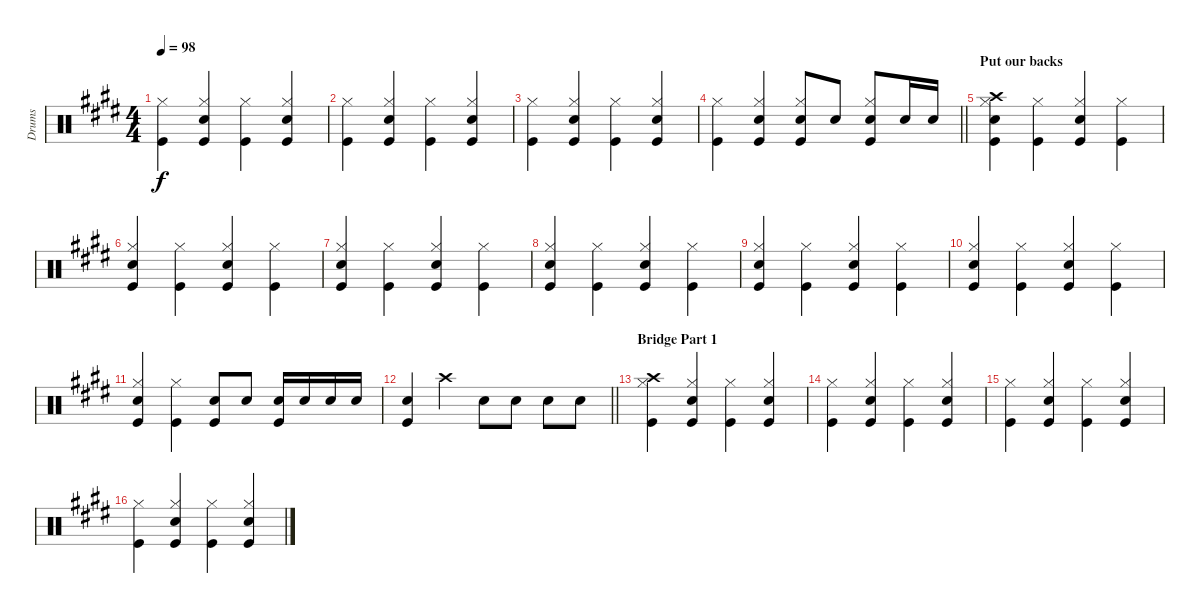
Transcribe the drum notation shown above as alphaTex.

\track ("Drums" "Drums") {instrument percussion}
\staff {score}
\articulation defaults
\ts (4 4)
\tempo 98
\clef neutral
\ks c#minor
("Kick (hit)" "Hi-Hat (closed)").4{dy f} ("Kick (hit)" "Snare (hit) 2" "Hi-Hat (closed)").4 ("Kick (hit)" "Hi-Hat (closed)").4 ("Kick (hit)" "Snare (hit) 2" "Hi-Hat (closed)").4 |
("Kick (hit)" "Hi-Hat (closed)").4 ("Kick (hit)" "Snare (hit) 2" "Hi-Hat (closed)").4 ("Kick (hit)" "Hi-Hat (closed)").4 ("Kick (hit)" "Snare (hit) 2" "Hi-Hat (closed)").4 |
("Kick (hit)" "Hi-Hat (closed)").4 ("Kick (hit)" "Snare (hit) 2" "Hi-Hat (closed)").4 ("Kick (hit)" "Hi-Hat (closed)").4 ("Kick (hit)" "Snare (hit) 2" "Hi-Hat (closed)").4 |
\barLineRight lightlight
("Kick (hit)" "Hi-Hat (closed)").4 ("Kick (hit)" "Snare (hit) 2" "Hi-Hat (closed)").4 ("Kick (hit)" "Snare (hit) 2" "Hi-Hat (closed)").8 "Snare (hit) 2".8 ("Kick (hit)" "Snare (hit) 2" "Hi-Hat (closed)").8 "Snare (hit) 2".16 "Snare (hit) 2".16 |
\section ("" "Put our backs")
("Kick (hit)" "Snare (hit) 2" "Hi-Hat (closed)" "Crash high (hit)").4 ("Kick (hit)" "Hi-Hat (closed)").4 ("Kick (hit)" "Snare (hit) 2" "Hi-Hat (closed)").4 ("Kick (hit)" "Hi-Hat (closed)").4 |
("Kick (hit)" "Snare (hit) 2" "Hi-Hat (closed)").4 ("Kick (hit)" "Hi-Hat (closed)").4 ("Kick (hit)" "Snare (hit) 2" "Hi-Hat (closed)").4 ("Kick (hit)" "Hi-Hat (closed)").4 |
("Kick (hit)" "Snare (hit) 2" "Hi-Hat (closed)").4 ("Kick (hit)" "Hi-Hat (closed)").4 ("Kick (hit)" "Snare (hit) 2" "Hi-Hat (closed)").4 ("Kick (hit)" "Hi-Hat (closed)").4 |
("Kick (hit)" "Snare (hit) 2" "Hi-Hat (closed)").4 ("Kick (hit)" "Hi-Hat (closed)").4 ("Kick (hit)" "Snare (hit) 2" "Hi-Hat (closed)").4 ("Kick (hit)" "Hi-Hat (closed)").4 |
("Kick (hit)" "Snare (hit) 2" "Hi-Hat (closed)").4 ("Kick (hit)" "Hi-Hat (closed)").4 ("Kick (hit)" "Snare (hit) 2" "Hi-Hat (closed)").4 ("Kick (hit)" "Hi-Hat (closed)").4 |
("Kick (hit)" "Snare (hit) 2" "Hi-Hat (closed)").4 ("Kick (hit)" "Hi-Hat (closed)").4 ("Kick (hit)" "Snare (hit) 2" "Hi-Hat (closed)").4 ("Kick (hit)" "Hi-Hat (closed)").4 |
("Kick (hit)" "Snare (hit) 2" "Hi-Hat (closed)").4 ("Kick (hit)" "Hi-Hat (closed)").4 ("Kick (hit)" "Snare (hit) 2").8 "Snare (hit) 2".8 ("Kick (hit)" "Snare (hit) 2").16 "Snare (hit) 2".16 "Snare (hit) 2".16 "Snare (hit) 2".16 |
\barLineRight lightlight
("Kick (hit)" "Snare (hit) 2").4 "Crash high (hit)".4 "Snare (hit) 2".8 "Snare (hit) 2".8 "Snare (hit) 2".8 "Snare (hit) 2".8 |
\section ("" "Bridge Part 1")
("Kick (hit)" "Hi-Hat (closed)" "Crash high (hit)").4 ("Kick (hit)" "Snare (hit) 2" "Hi-Hat (closed)").4 ("Kick (hit)" "Hi-Hat (closed)").4 ("Kick (hit)" "Snare (hit) 2" "Hi-Hat (closed)").4 |
("Kick (hit)" "Hi-Hat (closed)").4 ("Kick (hit)" "Snare (hit) 2" "Hi-Hat (closed)").4 ("Kick (hit)" "Hi-Hat (closed)").4 ("Kick (hit)" "Snare (hit) 2" "Hi-Hat (closed)").4 |
("Kick (hit)" "Hi-Hat (closed)").4 ("Kick (hit)" "Snare (hit) 2" "Hi-Hat (closed)").4 ("Kick (hit)" "Hi-Hat (closed)").4 ("Kick (hit)" "Snare (hit) 2" "Hi-Hat (closed)").4 |
("Kick (hit)" "Hi-Hat (closed)").4 ("Kick (hit)" "Snare (hit) 2" "Hi-Hat (closed)").4 ("Kick (hit)" "Hi-Hat (closed)").4 ("Kick (hit)" "Snare (hit) 2" "Hi-Hat (closed)").4
